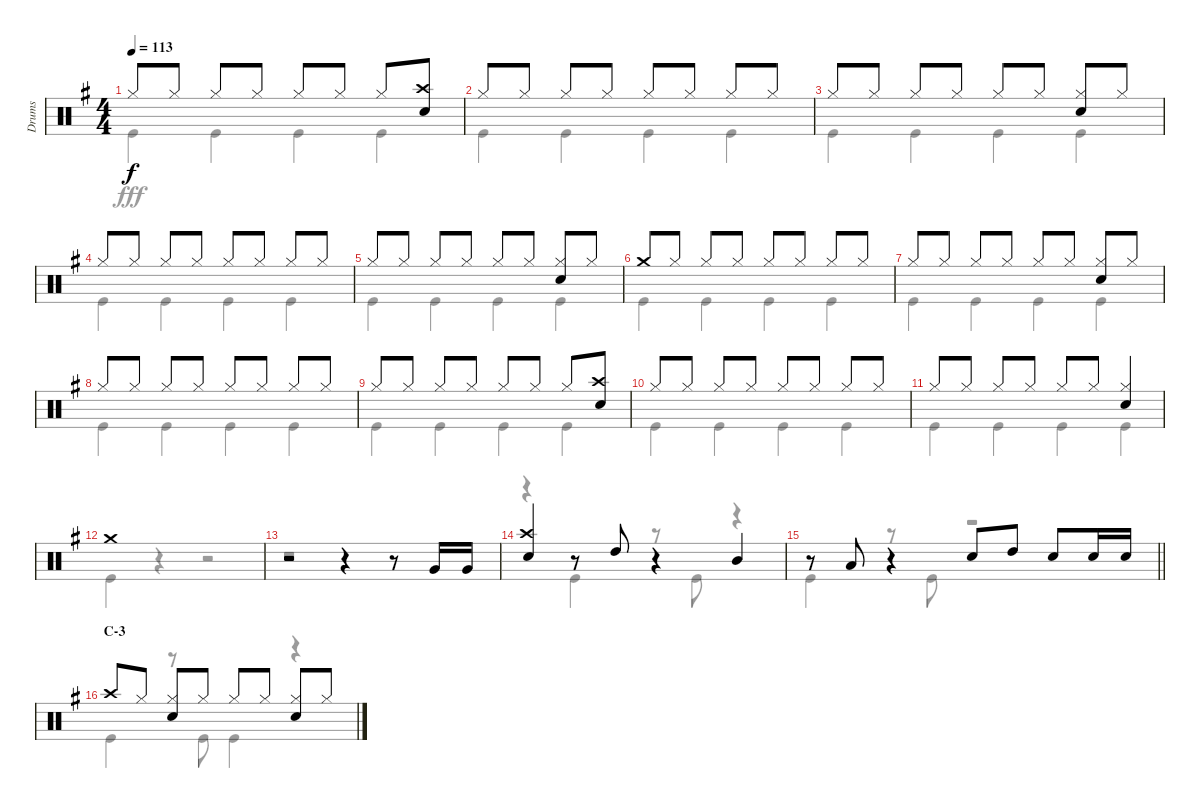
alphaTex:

\track ("Drums" "Drums") {instrument percussion}
\staff {score}
\articulation defaults
\voice
\ts (4 4)
\tempo 113
\clef neutral
\ks g "Hi-Hat (closed)".8{dy f} "Hi-Hat (closed)".8 "Hi-Hat (closed)".8 "Hi-Hat (closed)".8 "Hi-Hat (closed)".8 "Hi-Hat (closed)".8 "Hi-Hat (closed)".8
("Crash high (hit)" "Snare (hit) 2").8 |
"Hi-Hat (closed)".8 "Hi-Hat (closed)".8 "Hi-Hat (closed)".8 "Hi-Hat (closed)".8 "Hi-Hat (closed)".8 "Hi-Hat (closed)".8 "Hi-Hat (closed)".8 "Hi-Hat (closed)".8 |
"Hi-Hat (closed)".8 "Hi-Hat (closed)".8 "Hi-Hat (closed)".8 "Hi-Hat (closed)".8 "Hi-Hat (closed)".8 "Hi-Hat (closed)".8 ("Hi-Hat (closed)" "Snare (hit) 2").8 "Hi-Hat (closed)".8 |
"Hi-Hat (closed)".8 "Hi-Hat (closed)".8 "Hi-Hat (closed)".8 "Hi-Hat (closed)".8 "Hi-Hat (closed)".8 "Hi-Hat (closed)".8 "Hi-Hat (closed)".8 "Hi-Hat (closed)".8 |
"Hi-Hat (closed)".8 "Hi-Hat (closed)".8 "Hi-Hat (closed)".8 "Hi-Hat (closed)".8 "Hi-Hat (closed)".8 "Hi-Hat (closed)".8 ("Hi-Hat (closed)" "Snare (hit) 2").8 "Hi-Hat (closed)".8 |
"Crash medium (hit)".8 "Hi-Hat (closed)".8 "Hi-Hat (closed)".8 "Hi-Hat (closed)".8 "Hi-Hat (closed)".8 "Hi-Hat (closed)".8 "Hi-Hat (closed)".8 "Hi-Hat (closed)".8 |
"Hi-Hat (closed)".8 "Hi-Hat (closed)".8 "Hi-Hat (closed)".8 "Hi-Hat (closed)".8 "Hi-Hat (closed)".8 "Hi-Hat (closed)".8 ("Hi-Hat (closed)" "Snare (hit) 2").8 "Hi-Hat (closed)".8 |
"Hi-Hat (closed)".8 "Hi-Hat (closed)".8 "Hi-Hat (closed)".8 "Hi-Hat (closed)".8 "Hi-Hat (closed)".8 "Hi-Hat (closed)".8 "Hi-Hat (closed)".8 "Hi-Hat (closed)".8 |
"Hi-Hat (closed)".8 "Hi-Hat (closed)".8 "Hi-Hat (closed)".8 "Hi-Hat (closed)".8 "Hi-Hat (closed)".8 "Hi-Hat (closed)".8 "Hi-Hat (closed)".8 ("Crash high (hit)" "Snare (hit) 2").8 |
"Hi-Hat (closed)".8 "Hi-Hat (closed)".8 "Hi-Hat (closed)".8 "Hi-Hat (closed)".8 "Hi-Hat (closed)".8 "Hi-Hat (closed)".8 "Hi-Hat (closed)".8 "Hi-Hat (closed)".8 |
"Hi-Hat (closed)".8 "Hi-Hat (closed)".8 "Hi-Hat (closed)".8 "Hi-Hat (closed)".8 "Hi-Hat (closed)".8 "Hi-Hat (closed)".8 ("Hi-Hat (closed)" "Snare (hit) 2").4 |
"Crash medium (hit)".1 |
r.2 r.4 r.8 "Very Low Tom (hit)".16 "Very Low Tom (hit)".16 |
("Crash high (hit)" "Snare (hit) 2").4 r.8 "High Tom (hit)".8 r.4 "Mid Tom (hit)".4 |
\barLineRight lightlight
r.8 "Low Tom (hit)".8 r.4 "Snare (hit) 2".8 "High Tom (hit)".8 "Snare (hit) 2".8 "Snare (hit) 2".16 "Snare (hit) 2".16 |
\section ("" "C-3")
"Crash high (hit)".8 "Hi-Hat (closed)".8 ("Hi-Hat (closed)" "Snare (hit) 2").8 "Hi-Hat (closed)".8 "Hi-Hat (closed)".8 "Hi-Hat (closed)".8 ("Hi-Hat (closed)" "Snare (hit) 2").8 "Hi-Hat (closed)".8
\voice
\clef neutral
\ottava regular
\simile none
\ks g "Kick (hit)".4{dy fff} "Kick (hit)".4 "Kick (hit)".4 "Kick (hit)".4
|
"Kick (hit)".4 "Kick (hit)".4 "Kick (hit)".4 "Kick (hit)".4 |
"Kick (hit)".4 "Kick (hit)".4 "Kick (hit)".4 "Kick (hit)".4 |
"Kick (hit)".4 "Kick (hit)".4 "Kick (hit)".4 "Kick (hit)".4 |
"Kick (hit)".4 "Kick (hit)".4 "Kick (hit)".4 "Kick (hit)".4 |
"Kick (hit)".4 "Kick (hit)".4 "Kick (hit)".4 "Kick (hit)".4 |
"Kick (hit)".4 "Kick (hit)".4 "Kick (hit)".4 "Kick (hit)".4 |
"Kick (hit)".4 "Kick (hit)".4 "Kick (hit)".4 "Kick (hit)".4 |
"Kick (hit)".4 "Kick (hit)".4 "Kick (hit)".4 "Kick (hit)".4 |
"Kick (hit)".4 "Kick (hit)".4 "Kick (hit)".4 "Kick (hit)".4 |
"Kick (hit)".4 "Kick (hit)".4 "Kick (hit)".4 "Kick (hit)".4 |
"Kick (hit)".4 r.4 r.2 |
r.1 |
r.4 "Kick (hit)".4 r.8 "Kick (hit)".8 r.4 |
\barLineRight lightlight "Kick (hit)".4
r.8 "Kick (hit)".8 r.2 |
"Kick (hit)".4 r.8 "Kick (hit)".8 "Kick (hit)".4 r.4
